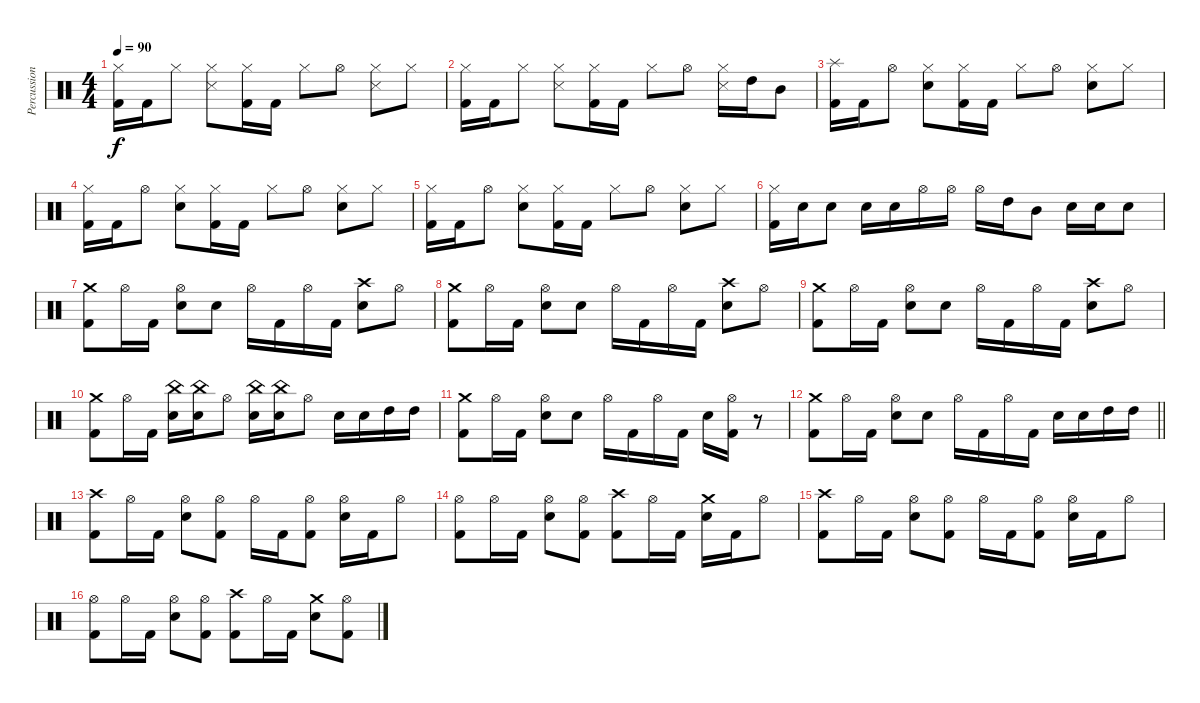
\track ("Percussion" "Percussion") {instrument percussion}
\staff {score}
\articulation defaults
\ts (4 4)
\tempo 90
\clef neutral
\ks c
("Hi-Hat (closed)" "Kick (hit) 2").16{dy f} "Kick (hit) 2".16 "Hi-Hat (closed)".8 ("Hi-Hat (closed)" "Snare (side stick) 3").8 ("Hi-Hat (closed)" "Kick (hit) 2").16 "Kick (hit) 2".16 "Hi-Hat (closed)".8 "Hi-Hat (open)".8 ("Hi-Hat (closed)" "Snare (side stick) 3").8 "Hi-Hat (closed)".8 |
("Hi-Hat (closed)" "Kick (hit) 2").16 "Kick (hit) 2".16 "Hi-Hat (closed)".8 ("Hi-Hat (closed)" "Snare (side stick) 3").8 ("Hi-Hat (closed)" "Kick (hit) 2").16 "Kick (hit) 2".16 "Hi-Hat (closed)".8 "Hi-Hat (open)".8 ("Hi-Hat (closed)" "Snare (side stick) 3").16 "High Tom (hit)".16 "Mid Tom (hit)".8 |
("Splash (hit)" "Kick (hit) 2").16 "Kick (hit) 2".16 "Hi-Hat (open)".8 ("Hi-Hat (closed)" "Electric Snare (hit)").8 ("Hi-Hat (closed)" "Kick (hit) 2").16 "Kick (hit) 2".16 "Hi-Hat (closed)".8 "Hi-Hat (open)".8 ("Hi-Hat (closed)" "Electric Snare (hit)").8 "Hi-Hat (closed)".8 |
("Hi-Hat (closed)" "Kick (hit) 2").16 "Kick (hit) 2".16 "Hi-Hat (open)".8 ("Hi-Hat (closed)" "Electric Snare (hit)").8 ("Hi-Hat (closed)" "Kick (hit) 2").16 "Kick (hit) 2".16 "Hi-Hat (closed)".8 "Hi-Hat (open)".8 ("Hi-Hat (closed)" "Electric Snare (hit)").8 "Hi-Hat (closed)".8 |
("Hi-Hat (closed)" "Kick (hit) 2").16 "Kick (hit) 2".16 "Hi-Hat (open)".8 ("Hi-Hat (closed)" "Electric Snare (hit)").8 ("Hi-Hat (closed)" "Kick (hit) 2").16 "Kick (hit) 2".16 "Hi-Hat (closed)".8 "Hi-Hat (open)".8 ("Hi-Hat (closed)" "Electric Snare (hit)").8 "Hi-Hat (closed)".8 |
("Hi-Hat (closed)" "Kick (hit) 2").16 "Electric Snare (hit)".16 "Electric Snare (hit)".8 "Electric Snare (hit)".16 "Electric Snare (hit)".16 "Hi-Hat (open)".16 "Hi-Hat (open)".16 "Hi-Hat (open)".16 "High Tom (hit)".16 "Mid Tom (hit)".8 "Snare (hit) 2".16 "Snare (hit) 2".16 "Snare (hit) 2".8 |
("Crash medium (hit)" "Kick (hit) 2").8 "Hi-Hat (open)".16 "Kick (hit) 2".16 ("Hi-Hat (open)" "Snare (hit) 2").8 "Snare (hit) 2".8 "Hi-Hat (open)".16 "Kick (hit) 2".16 "Hi-Hat (open)".16 "Kick (hit) 2".16 ("Crash high (hit)" "Snare (hit) 2").8 "Hi-Hat (open)".8 |
("Crash medium (hit)" "Kick (hit) 2").8 "Hi-Hat (open)".16 "Kick (hit) 2".16 ("Hi-Hat (open)" "Snare (hit) 2").8 "Snare (hit) 2".8 "Hi-Hat (open)".16 "Kick (hit) 2".16 "Hi-Hat (open)".16 "Kick (hit) 2".16 ("Crash high (hit)" "Snare (hit) 2").8 "Hi-Hat (open)".8 |
("Crash medium (hit)" "Kick (hit) 2").8 "Hi-Hat (open)".16 "Kick (hit) 2".16 ("Hi-Hat (open)" "Snare (hit) 2").8 "Snare (hit) 2".8 "Hi-Hat (open)".16 "Kick (hit) 2".16 "Hi-Hat (open)".16 "Kick (hit) 2".16 ("Crash high (hit)" "Snare (hit) 2").8 "Hi-Hat (open)".8 |
("Crash medium (hit)" "Kick (hit) 2").8 "Hi-Hat (open)".16 "Kick (hit) 2".16 ("China (hit)" "Snare (hit) 2").16 ("China (hit)" "Snare (hit) 2").16 "Hi-Hat (open)".8 ("China (hit)" "Snare (hit) 2").16 ("China (hit)" "Snare (hit) 2").16 "Hi-Hat (open)".8 "Snare (hit) 2".16 "Snare (hit) 2".16 "High Tom (hit)".16 "High Tom (hit)".16 |
("Crash medium (hit)" "Kick (hit) 2").8 "Hi-Hat (open)".16 "Kick (hit) 2".16 ("Hi-Hat (open)" "Snare (hit) 2").8 "Snare (hit) 2".8 "Hi-Hat (open)".16 "Kick (hit) 2".16 "Hi-Hat (open)".16 "Kick (hit) 2".16 "Snare (hit) 2".16 ("Hi-Hat (open)" "Kick (hit) 2").16 r.8 |
\barLineRight lightlight
("Crash medium (hit)" "Kick (hit) 2").8 "Hi-Hat (open)".16 "Kick (hit) 2".16 ("Hi-Hat (open)" "Snare (hit) 2").8 "Snare (hit) 2".8 "Hi-Hat (open)".16 "Kick (hit) 2".16 "Hi-Hat (open)".16 "Kick (hit) 2".16 "Snare (hit) 2".16 "Snare (hit) 2".16 "High Tom (hit)".16 "High Tom (hit)".16 |
("Crash high (hit)" "Kick (hit) 2").8 "Hi-Hat (open)".16 "Kick (hit) 2".16 ("Hi-Hat (open)" "Snare (hit) 2").8 ("Hi-Hat (open)" "Kick (hit) 2").8 "Hi-Hat (open)".16 "Kick (hit) 2".16 ("Hi-Hat (open)" "Kick (hit) 2").8 ("Hi-Hat (open)" "Snare (hit) 2").16 "Kick (hit) 2".16 "Hi-Hat (open)".8 |
("Hi-Hat (open)" "Kick (hit) 2").8 "Hi-Hat (open)".16 "Kick (hit) 2".16 ("Hi-Hat (open)" "Snare (hit) 2").8 ("Hi-Hat (open)" "Kick (hit) 2").8 ("Crash high (hit)" "Kick (hit) 2").8 "Hi-Hat (open)".16 "Kick (hit) 2".16 ("Crash medium (hit)" "Snare (hit) 2").16 "Kick (hit) 2".16 "Hi-Hat (open)".8 |
("Crash high (hit)" "Kick (hit) 2").8 "Hi-Hat (open)".16 "Kick (hit) 2".16 ("Hi-Hat (open)" "Snare (hit) 2").8 ("Hi-Hat (open)" "Kick (hit) 2").8 "Hi-Hat (open)".16 "Kick (hit) 2".16 ("Hi-Hat (open)" "Kick (hit) 2").8 ("Hi-Hat (open)" "Snare (hit) 2").16 "Kick (hit) 2".16 "Hi-Hat (open)".8 |
("Hi-Hat (open)" "Kick (hit) 2").8 "Hi-Hat (open)".16 "Kick (hit) 2".16 ("Hi-Hat (open)" "Snare (hit) 2").8 ("Hi-Hat (open)" "Kick (hit) 2").8 ("Crash high (hit)" "Kick (hit) 2").8 "Hi-Hat (open)".16 "Kick (hit) 2".16 ("Crash medium (hit)" "Snare (hit) 2").8 ("Hi-Hat (open)" "Kick (hit) 2").8
